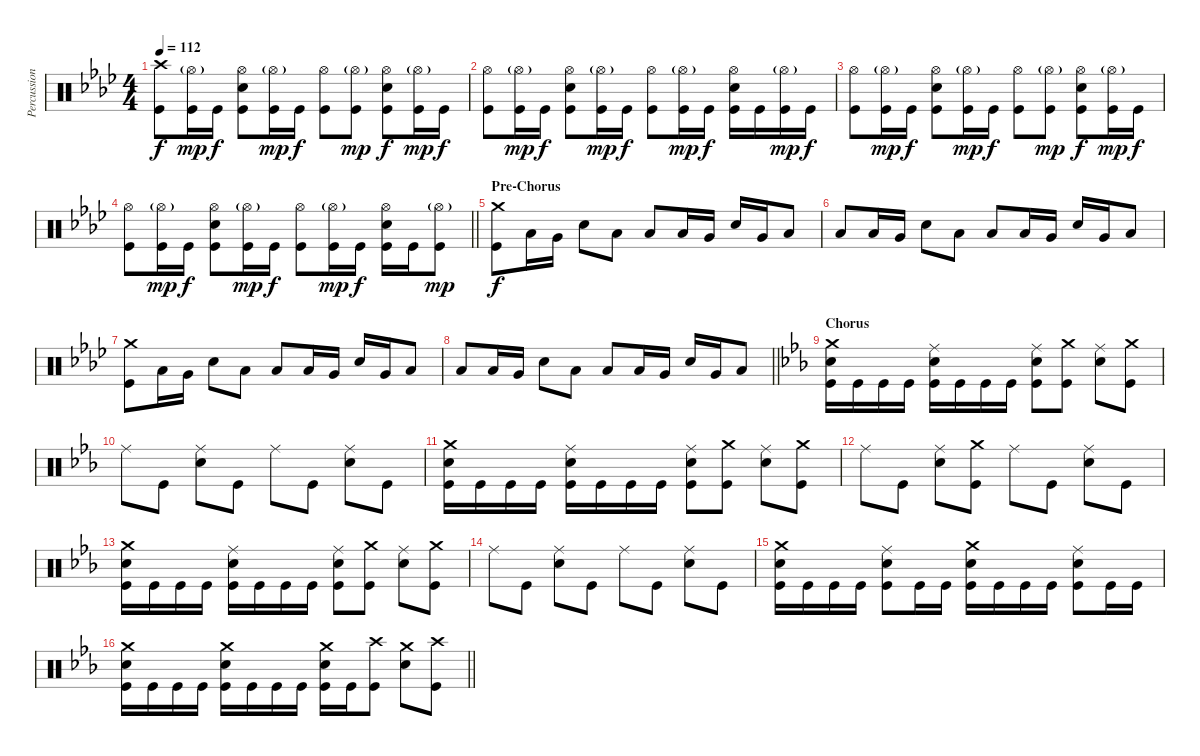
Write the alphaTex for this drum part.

\track ("Percussion" "Percussion") {instrument percussion}
\staff {score}
\articulation defaults
\ts (4 4)
\tempo 112
\clef neutral
\ks ab
("Crash high (hit)" "Kick (hit)").8{dy f} ("Hi-Hat (open)"{g} "Kick (hit)").16{dy mp} "Kick (hit)".16{dy f} ("Hi-Hat (open)" "Electric Snare (hit)" "Kick (hit)").8 ("Hi-Hat (open)"{g} "Kick (hit)").16{dy mp} "Kick (hit)".16{dy f} ("Hi-Hat (open)" "Kick (hit)").8 ("Hi-Hat (open)"{g} "Kick (hit)").8{dy mp} ("Hi-Hat (open)" "Electric Snare (hit)" "Kick (hit)").8{dy f} ("Hi-Hat (open)"{g} "Kick (hit)").16{dy mp} "Kick (hit)".16{dy f} |
("Hi-Hat (open)" "Kick (hit)").8 ("Hi-Hat (open)"{g} "Kick (hit)").16{dy mp} "Kick (hit)".16{dy f} ("Hi-Hat (open)" "Electric Snare (hit)" "Kick (hit)").8 ("Hi-Hat (open)"{g} "Kick (hit)").16{dy mp} "Kick (hit)".16{dy f} ("Hi-Hat (open)" "Kick (hit)").8 ("Hi-Hat (open)"{g} "Kick (hit)").16{dy mp} "Kick (hit)".16{dy f} ("Hi-Hat (open)" "Electric Snare (hit)" "Kick (hit)").16 "Kick (hit)".16 ("Hi-Hat (open)"{g} "Kick (hit)").16{dy mp} "Kick (hit)".16{dy f} |
("Hi-Hat (open)" "Kick (hit)").8 ("Hi-Hat (open)"{g} "Kick (hit)").16{dy mp} "Kick (hit)".16{dy f} ("Hi-Hat (open)" "Electric Snare (hit)" "Kick (hit)").8 ("Hi-Hat (open)"{g} "Kick (hit)").16{dy mp} "Kick (hit)".16{dy f} ("Hi-Hat (open)" "Kick (hit)").8 ("Hi-Hat (open)"{g} "Kick (hit)").8{dy mp} ("Hi-Hat (open)" "Electric Snare (hit)" "Kick (hit)").8{dy f} ("Hi-Hat (open)"{g} "Kick (hit)").16{dy mp} "Kick (hit)".16{dy f} |
\barLineRight lightlight
("Hi-Hat (open)" "Kick (hit)").8 ("Hi-Hat (open)"{g} "Kick (hit)").16{dy mp} "Kick (hit)".16{dy f} ("Hi-Hat (open)" "Electric Snare (hit)" "Kick (hit)").8 ("Hi-Hat (open)"{g} "Kick (hit)").16{dy mp} "Kick (hit)".16{dy f} ("Hi-Hat (open)" "Kick (hit)").8 ("Hi-Hat (open)"{g} "Kick (hit)").16{dy mp} "Kick (hit)".16{dy f} ("Hi-Hat (open)" "Electric Snare (hit)" "Kick (hit)").16 "Kick (hit)".16 ("Hi-Hat (open)"{g} "Kick (hit)").8{dy mp} |
\section ("" "Pre-Chorus")
("Crash medium (hit)" "Kick (hit)").8{dy f} "Low Floor Tom (hit)".16 "Very Low Tom (hit)".16 "Electric Snare (hit)".8 "Low Floor Tom (hit)".8 "Low Floor Tom (hit)".8 "Low Floor Tom (hit)".16 "Very Low Tom (hit)".16 "Electric Snare (hit)".16 "Very Low Tom (hit)".16 "Low Floor Tom (hit)".8 |
"Low Floor Tom (hit)".8 "Low Floor Tom (hit)".16 "Very Low Tom (hit)".16 "Electric Snare (hit)".8 "Low Floor Tom (hit)".8 "Low Floor Tom (hit)".8 "Low Floor Tom (hit)".16 "Very Low Tom (hit)".16 "Electric Snare (hit)".16 "Very Low Tom (hit)".16 "Low Floor Tom (hit)".8 |
("Crash medium (hit)" "Kick (hit)").8 "Low Floor Tom (hit)".16 "Very Low Tom (hit)".16 "Electric Snare (hit)".8 "Low Floor Tom (hit)".8 "Low Floor Tom (hit)".8 "Low Floor Tom (hit)".16 "Very Low Tom (hit)".16 "Electric Snare (hit)".16 "Very Low Tom (hit)".16 "Low Floor Tom (hit)".8 |
\barLineRight lightlight "Low Floor Tom (hit)".8 "Low Floor Tom (hit)".16 "Very Low Tom (hit)".16 "Electric Snare (hit)".8 "Low Floor Tom (hit)".8 "Low Floor Tom (hit)".8 "Low Floor Tom (hit)".16 "Very Low Tom (hit)".16 "Electric Snare (hit)".16 "Very Low Tom (hit)".16 "Low Floor Tom (hit)".8
|
\section ("" "Chorus")
\ks eb
("Crash medium (hit)" "Electric Snare (hit)" "Kick (hit)").16 "Kick (hit)".16 "Kick (hit)".16 "Kick (hit)".16 ("Ride (middle)" "Electric Snare (hit)" "Kick (hit)").16 "Kick (hit)".16 "Kick (hit)".16 "Kick (hit)".16 ("Ride (middle)" "Electric Snare (hit)" "Kick (hit)").8 ("Crash medium (hit)" "Kick (hit)").8 ("Ride (middle)" "Electric Snare (hit)").8 ("Crash medium (hit)" "Kick (hit)").8 |
"Ride (middle)".8 "Kick (hit)".8 ("Ride (middle)" "Electric Snare (hit)").8 "Kick (hit)".8 "Ride (middle)".8 "Kick (hit)".8 ("Ride (middle)" "Electric Snare (hit)").8 "Kick (hit)".8 |
("Crash medium (hit)" "Electric Snare (hit)" "Kick (hit)").16 "Kick (hit)".16 "Kick (hit)".16 "Kick (hit)".16 ("Ride (middle)" "Electric Snare (hit)" "Kick (hit)").16 "Kick (hit)".16 "Kick (hit)".16 "Kick (hit)".16 ("Ride (middle)" "Electric Snare (hit)" "Kick (hit)").8 ("Crash medium (hit)" "Kick (hit)").8 ("Ride (middle)" "Electric Snare (hit)").8 ("Crash medium (hit)" "Kick (hit)").8 |
"Ride (middle)".8 "Kick (hit)".8 ("Ride (middle)" "Electric Snare (hit)").8 ("Crash medium (hit)" "Kick (hit)").8 "Ride (middle)".8 "Kick (hit)".8 ("Ride (middle)" "Electric Snare (hit)").8 "Kick (hit)".8 |
("Crash medium (hit)" "Electric Snare (hit)" "Kick (hit)").16 "Kick (hit)".16 "Kick (hit)".16 "Kick (hit)".16 ("Ride (middle)" "Electric Snare (hit)" "Kick (hit)").16 "Kick (hit)".16 "Kick (hit)".16 "Kick (hit)".16 ("Ride (middle)" "Electric Snare (hit)" "Kick (hit)").8 ("Crash medium (hit)" "Kick (hit)").8 ("Ride (middle)" "Electric Snare (hit)").8 ("Crash medium (hit)" "Kick (hit)").8 |
"Ride (middle)".8 "Kick (hit)".8 ("Ride (middle)" "Electric Snare (hit)").8 "Kick (hit)".8 "Ride (middle)".8 "Kick (hit)".8 ("Ride (middle)" "Electric Snare (hit)").8 "Kick (hit)".8 |
("Crash medium (hit)" "Electric Snare (hit)" "Kick (hit)").16 "Kick (hit)".16 "Kick (hit)".16 "Kick (hit)".16 ("Ride (middle)" "Electric Snare (hit)" "Kick (hit)").8 "Kick (hit)".16 "Kick (hit)".16 ("Crash medium (hit)" "Electric Snare (hit)" "Kick (hit)").16 "Kick (hit)".16 "Kick (hit)".16 "Kick (hit)".16 ("Ride (middle)" "Electric Snare (hit)" "Kick (hit)").8 "Kick (hit)".16 "Kick (hit)".16 |
\barLineRight lightlight
("Crash medium (hit)" "Electric Snare (hit)" "Kick (hit)").16 "Kick (hit)".16 "Kick (hit)".16 "Kick (hit)".16 ("Crash medium (hit)" "Electric Snare (hit)" "Kick (hit)").16 "Kick (hit)".16 "Kick (hit)".16 "Kick (hit)".16 ("Crash medium (hit)" "Electric Snare (hit)" "Kick (hit)").16 "Kick (hit)".16 ("Crash high (hit)" "Kick (hit)").8 ("Crash medium (hit)" "Electric Snare (hit)").8 ("Crash high (hit)" "Kick (hit)").8
